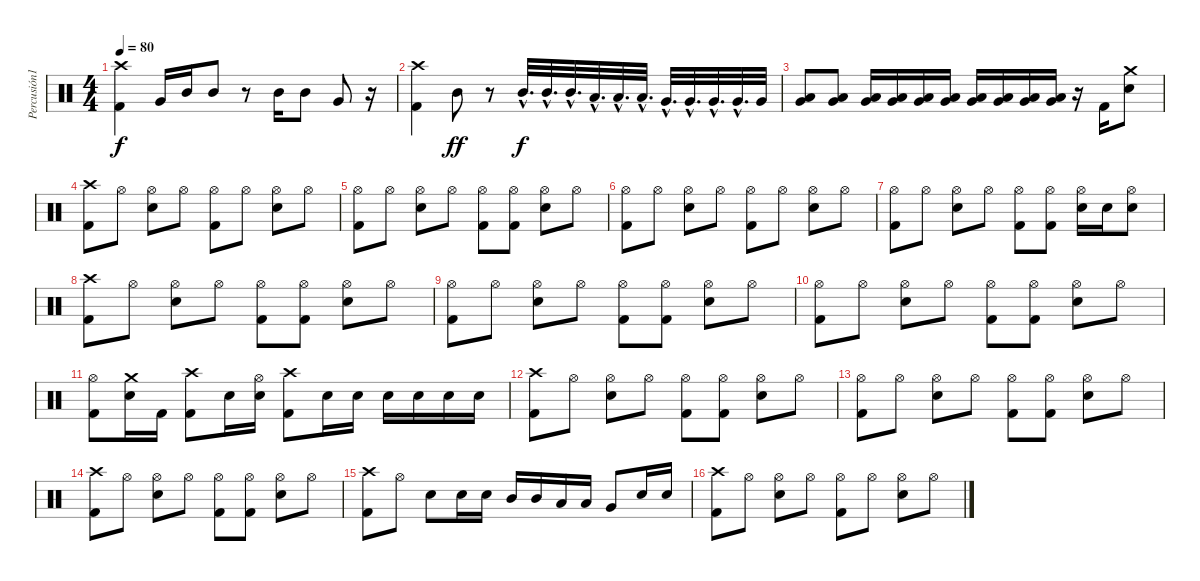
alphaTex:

\track ("Percusión1" "Percusión1") {instrument percussion}
\staff {score}
\articulation defaults
\ts (4 4)
\tempo 80
\clef neutral
\ks c
("Crash high (hit)" "Kick (hit) 2").4{dy f} "Very Low Tom (hit)".16 "Mid Tom (hit)".16 "Mid Tom (hit)".8 r.8 "Mid Tom (hit)".16 "Mid Tom (hit)".8 "Very Low Tom (hit)".8 r.16 |
("Crash high (hit)" "Kick (hit) 2").4 "Mid Tom (hit)".8{dy ff} r.8 "Mid Tom (hit)"{hac}.32{d dy f} "Mid Tom (hit)"{hac}.32{d} "Mid Tom (hit)"{hac}.32{d} "Low Tom (hit)"{hac}.32{d} "Low Tom (hit)"{hac}.32{d} "Low Tom (hit)"{hac}.32{d} "Very Low Tom (hit)"{hac}.32{d} "Very Low Tom (hit)"{hac}.32{d} "Very Low Tom (hit)"{hac}.32{d} "Very Low Tom (hit)"{hac}.32{d} "Very Low Tom (hit)".32 |
("Low Tom (hit)" "Very Low Tom (hit)").8 ("Low Tom (hit)" "Very Low Tom (hit)").8 ("Low Tom (hit)" "Very Low Tom (hit)").16 ("Low Tom (hit)" "Very Low Tom (hit)").16 ("Low Tom (hit)" "Very Low Tom (hit)").16 ("Low Tom (hit)" "Very Low Tom (hit)").16 ("Low Tom (hit)" "Very Low Tom (hit)").16 ("Low Tom (hit)" "Very Low Tom (hit)").16 ("Low Tom (hit)" "Very Low Tom (hit)").16 ("Low Tom (hit)" "Very Low Tom (hit)").16 r.16 "Kick (hit) 2".16 ("Crash medium (hit)" "Electric Snare (hit)").8 |
("Crash high (hit)" "Kick (hit) 2").8 "Hi-Hat (open)".8 ("Hi-Hat (open)" "Electric Snare (hit)").8 "Hi-Hat (open)".8 ("Hi-Hat (open)" "Kick (hit) 2").8 "Hi-Hat (open)".8 ("Hi-Hat (open)" "Electric Snare (hit)").8 "Hi-Hat (open)".8 |
("Hi-Hat (open)" "Kick (hit) 2").8 "Hi-Hat (open)".8 ("Hi-Hat (open)" "Electric Snare (hit)").8 "Hi-Hat (open)".8 ("Hi-Hat (open)" "Kick (hit) 2").8 ("Hi-Hat (open)" "Kick (hit) 2").8 ("Hi-Hat (open)" "Electric Snare (hit)").8 "Hi-Hat (open)".8 |
("Hi-Hat (open)" "Kick (hit) 2").8 "Hi-Hat (open)".8 ("Hi-Hat (open)" "Electric Snare (hit)").8 "Hi-Hat (open)".8 ("Hi-Hat (open)" "Kick (hit) 2").8 "Hi-Hat (open)".8 ("Hi-Hat (open)" "Electric Snare (hit)").8 "Hi-Hat (open)".8 |
("Hi-Hat (open)" "Kick (hit) 2").8 "Hi-Hat (open)".8 ("Hi-Hat (open)" "Electric Snare (hit)").8 "Hi-Hat (open)".8 ("Hi-Hat (open)" "Kick (hit) 2").8 ("Hi-Hat (open)" "Kick (hit) 2").8 ("Hi-Hat (open)" "Electric Snare (hit)").16 "Electric Snare (hit)".16 ("Hi-Hat (open)" "Electric Snare (hit)").8 |
("Crash high (hit)" "Kick (hit) 2").8 "Hi-Hat (open)".8 ("Hi-Hat (open)" "Electric Snare (hit)").8 "Hi-Hat (open)".8 ("Hi-Hat (open)" "Kick (hit) 2").8 ("Hi-Hat (open)" "Kick (hit) 2").8 ("Hi-Hat (open)" "Electric Snare (hit)").8 "Hi-Hat (open)".8 |
("Hi-Hat (open)" "Kick (hit) 2").8 "Hi-Hat (open)".8 ("Hi-Hat (open)" "Electric Snare (hit)").8 "Hi-Hat (open)".8 ("Hi-Hat (open)" "Kick (hit) 2").8 ("Hi-Hat (open)" "Kick (hit) 2").8 ("Hi-Hat (open)" "Electric Snare (hit)").8 "Hi-Hat (open)".8 |
("Hi-Hat (open)" "Kick (hit) 2").8 "Hi-Hat (open)".8 ("Hi-Hat (open)" "Electric Snare (hit)").8 "Hi-Hat (open)".8 ("Hi-Hat (open)" "Kick (hit) 2").8 ("Hi-Hat (open)" "Kick (hit) 2").8 ("Hi-Hat (open)" "Electric Snare (hit)").8 "Hi-Hat (open)".8 |
("Hi-Hat (open)" "Kick (hit) 2").8 ("Crash medium (hit)" "Electric Snare (hit)").16 "Kick (hit) 2".16 ("Crash high (hit)" "Kick (hit) 2").8 "Electric Snare (hit)".16 ("Hi-Hat (open)" "Electric Snare (hit)").16 ("Crash high (hit)" "Kick (hit) 2").8 "Electric Snare (hit)".16 "Electric Snare (hit)".16 "Electric Snare (hit)".16 "Electric Snare (hit)".16 "Electric Snare (hit)".16 "Electric Snare (hit)".16 |
("Crash high (hit)" "Kick (hit) 2").8 "Hi-Hat (open)".8 ("Hi-Hat (open)" "Electric Snare (hit)").8 "Hi-Hat (open)".8 ("Hi-Hat (open)" "Kick (hit) 2").8 ("Hi-Hat (open)" "Kick (hit) 2").8 ("Hi-Hat (open)" "Electric Snare (hit)").8 "Hi-Hat (open)".8 |
("Hi-Hat (open)" "Kick (hit) 2").8 "Hi-Hat (open)".8 ("Hi-Hat (open)" "Electric Snare (hit)").8 "Hi-Hat (open)".8 ("Hi-Hat (open)" "Kick (hit) 2").8 ("Hi-Hat (open)" "Kick (hit) 2").8 ("Hi-Hat (open)" "Electric Snare (hit)").8 "Hi-Hat (open)".8 |
("Crash high (hit)" "Kick (hit) 2").8 "Hi-Hat (open)".8 ("Hi-Hat (open)" "Electric Snare (hit)").8 "Hi-Hat (open)".8 ("Hi-Hat (open)" "Kick (hit) 2").8 ("Hi-Hat (open)" "Kick (hit) 2").8 ("Hi-Hat (open)" "Electric Snare (hit)").8 "Hi-Hat (open)".8 |
("Crash high (hit)" "Kick (hit) 2").8 "Hi-Hat (open)".8 "Electric Snare (hit)".8 "Electric Snare (hit)".16 "Electric Snare (hit)".16 "Mid Tom (hit)".16 "Mid Tom (hit)".16 "Low Tom (hit)".16 "Low Tom (hit)".16 "Very Low Tom (hit)".8 "Electric Snare (hit)".16 "Electric Snare (hit)".16 |
("Crash high (hit)" "Kick (hit) 2").8 "Hi-Hat (open)".8 ("Hi-Hat (open)" "Electric Snare (hit)").8 "Hi-Hat (open)".8 ("Hi-Hat (open)" "Kick (hit) 2").8 "Hi-Hat (open)".8 ("Hi-Hat (open)" "Electric Snare (hit)").8 "Hi-Hat (open)".8
